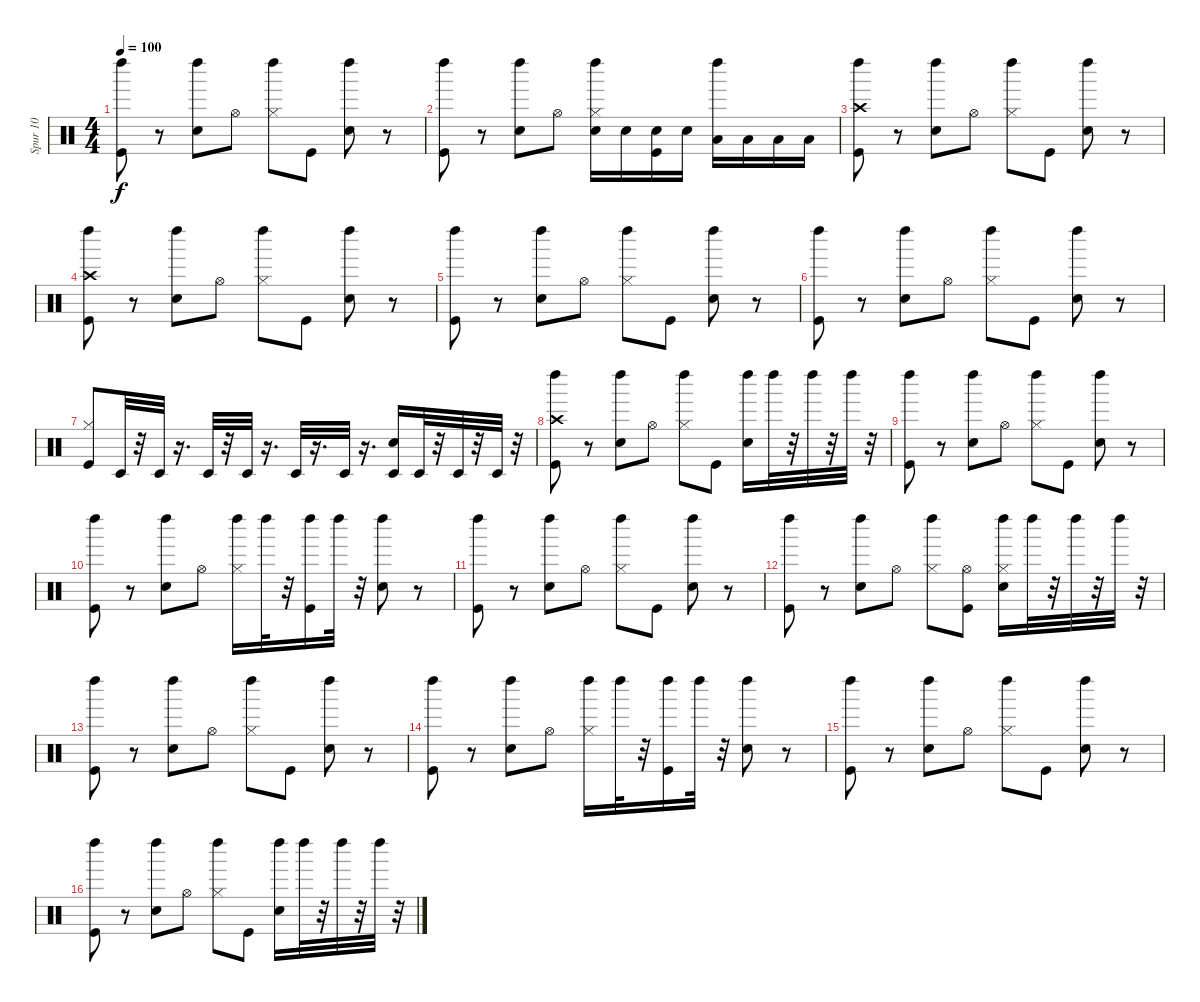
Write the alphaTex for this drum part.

\track ("Spur 10" "Spur 10") {instrument percussion}
\staff {score}
\articulation defaults
\ts (4 4)
\tempo 100
\clef neutral
\ks c
("Kick (hit)" "Left Maraca (hit)").8{dy f} r.8 ("Snare (hit) 2" "Left Maraca (hit)").8 "Hi-Hat (open)".8 ("Hi-Hat (closed)" "Left Maraca (hit)").8 "Kick (hit)".8 ("Snare (hit) 2" "Left Maraca (hit)").8 r.8 |
("Kick (hit)" "Left Maraca (hit)").8 r.8 ("Snare (hit) 2" "Left Maraca (hit)").8 "Hi-Hat (open)".8 ("Electric Snare (hit)" "Hi-Hat (closed)" "Left Maraca (hit)").16 "Electric Snare (hit)".16 ("Electric Snare (hit)" "Kick (hit)").16 "Electric Snare (hit)".16 ("Low Tom (hit)" "Left Maraca (hit)").16 "Low Tom (hit)".16 "Low Tom (hit)".16 "Low Tom (hit)".16 |
("Crash high (hit)" "Kick (hit)" "Left Maraca (hit)").8 r.8 ("Snare (hit) 2" "Left Maraca (hit)").8 "Hi-Hat (open)".8 ("Hi-Hat (closed)" "Left Maraca (hit)").8 "Kick (hit)".8 ("Snare (hit) 2" "Left Maraca (hit)").8 r.8 |
("Crash high (hit)" "Kick (hit)" "Left Maraca (hit)").8 r.8 ("Snare (hit) 2" "Left Maraca (hit)").8 "Hi-Hat (open)".8 ("Hi-Hat (closed)" "Left Maraca (hit)").8 "Kick (hit)".8 ("Snare (hit) 2" "Left Maraca (hit)").8 r.8 |
("Kick (hit)" "Left Maraca (hit)").8 r.8 ("Snare (hit) 2" "Left Maraca (hit)").8 "Hi-Hat (open)".8 ("Hi-Hat (closed)" "Left Maraca (hit)").8 "Kick (hit)".8 ("Snare (hit) 2" "Left Maraca (hit)").8 r.8 |
("Kick (hit)" "Left Maraca (hit)").8 r.8 ("Snare (hit) 2" "Left Maraca (hit)").8 "Hi-Hat (open)".8 ("Hi-Hat (closed)" "Left Maraca (hit)").8 "Kick (hit)".8 ("Snare (hit) 2" "Left Maraca (hit)").8 r.8 |
("Hi-Hat (closed)" "Kick (hit)").8 "Timbale low (hit)".32 r.32 "Timbale low (hit)".32 r.16{d} "Timbale low (hit)".32 r.32 "Timbale low (hit)".32 r.16{d} "Timbale low (hit)".32 r.16{d} "Timbale low (hit)".32 r.16{d} ("Timbale low (hit)" "Snare (hit) 2").16 "Timbale low (hit)".32 r.32 "Timbale low (hit)".32 r.32 "Timbale low (hit)".32 r.32 |
("Kick (hit)" "Crash high (hit)" "Left Maraca (hit)").8 r.8 ("Snare (hit) 2" "Left Maraca (hit)").8 "Hi-Hat (open)".8 ("Hi-Hat (closed)" "Left Maraca (hit)").8 "Kick (hit)".8 ("Snare (hit) 2" "Left Maraca (hit)").16 "Left Maraca (hit)".32 r.32 "Left Maraca (hit)".32 r.32 "Left Maraca (hit)".32 r.32 |
("Kick (hit)" "Left Maraca (hit)").8 r.8 ("Snare (hit) 2" "Left Maraca (hit)").8 "Hi-Hat (open)".8 ("Hi-Hat (closed)" "Left Maraca (hit)").8 "Kick (hit)".8 ("Snare (hit) 2" "Left Maraca (hit)").8 r.8 |
("Kick (hit)" "Left Maraca (hit)").8 r.8 ("Snare (hit) 2" "Left Maraca (hit)").8 "Hi-Hat (open)".8 ("Hi-Hat (closed)" "Left Maraca (hit)").16 "Left Maraca (hit)".32 r.32 ("Kick (hit)" "Left Maraca (hit)").16 "Left Maraca (hit)".32 r.32 ("Snare (hit) 2" "Left Maraca (hit)").8 r.8 |
("Kick (hit)" "Left Maraca (hit)").8 r.8 ("Snare (hit) 2" "Left Maraca (hit)").8 "Hi-Hat (open)".8 ("Hi-Hat (closed)" "Left Maraca (hit)").8 "Kick (hit)".8 ("Snare (hit) 2" "Left Maraca (hit)").8 r.8 |
("Kick (hit)" "Left Maraca (hit)").8 r.8 ("Snare (hit) 2" "Left Maraca (hit)").8 "Hi-Hat (open)".8 ("Hi-Hat (closed)" "Left Maraca (hit)").8 ("Hi-Hat (open)" "Kick (hit)").8 ("Hi-Hat (closed)" "Snare (hit) 2" "Left Maraca (hit)").16 "Left Maraca (hit)".32 r.32 "Left Maraca (hit)".32 r.32 "Left Maraca (hit)".32 r.32 |
("Kick (hit)" "Left Maraca (hit)").8 r.8 ("Snare (hit) 2" "Left Maraca (hit)").8 "Hi-Hat (open)".8 ("Hi-Hat (closed)" "Left Maraca (hit)").8 "Kick (hit)".8 ("Snare (hit) 2" "Left Maraca (hit)").8 r.8 |
("Kick (hit)" "Left Maraca (hit)").8 r.8 ("Snare (hit) 2" "Left Maraca (hit)").8 "Hi-Hat (open)".8 ("Hi-Hat (closed)" "Left Maraca (hit)").16 "Left Maraca (hit)".32 r.32 ("Kick (hit)" "Left Maraca (hit)").16 "Left Maraca (hit)".32 r.32 ("Snare (hit) 2" "Left Maraca (hit)").8 r.8 |
("Kick (hit)" "Left Maraca (hit)").8 r.8 ("Snare (hit) 2" "Left Maraca (hit)").8 "Hi-Hat (open)".8 ("Hi-Hat (closed)" "Left Maraca (hit)").8 "Kick (hit)".8 ("Snare (hit) 2" "Left Maraca (hit)").8 r.8 |
("Kick (hit)" "Left Maraca (hit)").8 r.8 ("Snare (hit) 2" "Left Maraca (hit)").8 "Hi-Hat (open)".8 ("Hi-Hat (closed)" "Left Maraca (hit)").8 "Kick (hit)".8 ("Snare (hit) 2" "Left Maraca (hit)").16 "Left Maraca (hit)".32 r.32 "Left Maraca (hit)".32 r.32 "Left Maraca (hit)".32 r.32
